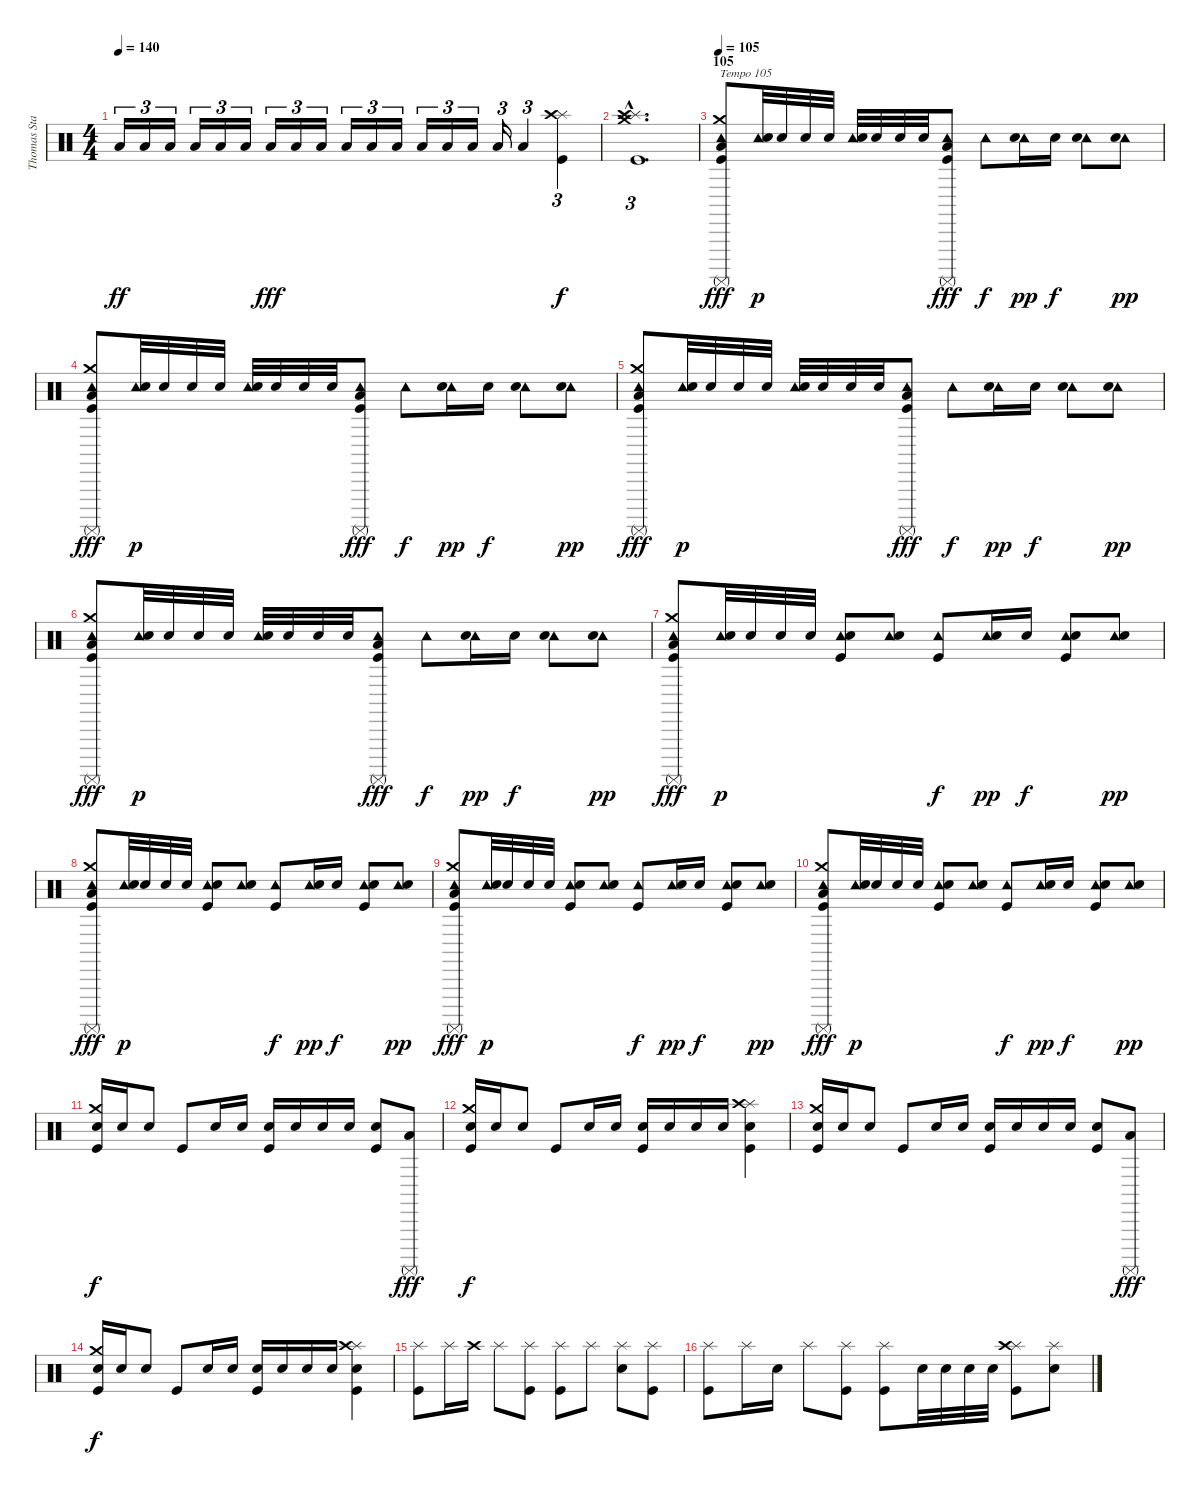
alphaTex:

\track ("Thomas Stauch" "Thomas Sta") {instrument percussion}
\staff {score}
\articulation defaults
\ts (4 4)
\tempo 140
\clef neutral
\ks c "Low Floor Tom (hit)".16{tu (3 2) dy ff} "Low Floor Tom (hit)".16{tu (3 2)} "Low Floor Tom (hit)".16{tu (3 2)} "Low Floor Tom (hit)".16{tu (3 2)} "Low Floor Tom (hit)".16{tu (3 2)} "Low Floor Tom (hit)".16{tu (3 2)} "Low Floor Tom (hit)".16{tu (3 2) dy fff} "Low Floor Tom (hit)".16{tu (3 2)} "Low Floor Tom (hit)".16{tu (3 2)} "Low Floor Tom (hit)".16{tu (3 2)} "Low Floor Tom (hit)".16{tu (3 2)} "Low Floor Tom (hit)".16{tu (3 2)} "Low Floor Tom (hit)".16{tu (3 2)} "Low Floor Tom (hit)".16{tu (3 2)} "Low Floor Tom (hit)".16{tu (3 2)} "Low Floor Tom (hit)".16{tu (3 2)} "Low Floor Tom (hit)".4{tu (3 2)}
("Splash (hit)" "Crash high (hit)" "Kick (hit)").4{tu (3 2) dy f} |
("Crash medium (hit)"{hac} "Splash (hit)"{hac} "Crash high (hit)"{hac} "Kick (hit)"{hac}).1{d tu (3 2)} |
\section ("" "105")
\tempo 105
("Crash medium (hit)" "Tambourine (hit)" "Surdo (mute)" "Low Floor Tom (hit)" "Kick (hit)").8{txt "Tempo 105" dy fff} ("Tambourine (hit)" "Electric Snare (hit)").32{dy p} "Electric Snare (hit)".32 "Electric Snare (hit)".32 "Electric Snare (hit)".32 ("Tambourine (hit)" "Electric Snare (hit)").32 "Electric Snare (hit)".32 "Electric Snare (hit)".32 "Electric Snare (hit)".32 ("Tambourine (hit)" "Surdo (mute)" "Low Floor Tom (hit)" "Kick (hit)").8{dy fff} "Tambourine (hit)".8{dy f} ("Tambourine (hit)" "Electric Snare (hit)").16{dy pp} "Electric Snare (hit)".16{dy f} ("Tambourine (hit)" "Electric Snare (hit)").8 ("Tambourine (hit)" "Electric Snare (hit)").8{dy pp} |
("Crash medium (hit)" "Tambourine (hit)" "Surdo (mute)" "Low Floor Tom (hit)" "Kick (hit)").8{dy fff} ("Tambourine (hit)" "Electric Snare (hit)").32{dy p} "Electric Snare (hit)".32 "Electric Snare (hit)".32 "Electric Snare (hit)".32 ("Tambourine (hit)" "Electric Snare (hit)").32 "Electric Snare (hit)".32 "Electric Snare (hit)".32 "Electric Snare (hit)".32 ("Tambourine (hit)" "Surdo (mute)" "Low Floor Tom (hit)" "Kick (hit)").8{dy fff} "Tambourine (hit)".8{dy f} ("Tambourine (hit)" "Electric Snare (hit)").16{dy pp} "Electric Snare (hit)".16{dy f} ("Tambourine (hit)" "Electric Snare (hit)").8 ("Tambourine (hit)" "Electric Snare (hit)").8{dy pp} |
("Crash medium (hit)" "Tambourine (hit)" "Surdo (mute)" "Low Floor Tom (hit)" "Kick (hit)").8{dy fff} ("Tambourine (hit)" "Electric Snare (hit)").32{dy p} "Electric Snare (hit)".32 "Electric Snare (hit)".32 "Electric Snare (hit)".32 ("Tambourine (hit)" "Electric Snare (hit)").32 "Electric Snare (hit)".32 "Electric Snare (hit)".32 "Electric Snare (hit)".32 ("Tambourine (hit)" "Surdo (mute)" "Low Floor Tom (hit)" "Kick (hit)").8{dy fff} "Tambourine (hit)".8{dy f} ("Tambourine (hit)" "Electric Snare (hit)").16{dy pp} "Electric Snare (hit)".16{dy f} ("Tambourine (hit)" "Electric Snare (hit)").8 ("Tambourine (hit)" "Electric Snare (hit)").8{dy pp} |
("Crash medium (hit)" "Tambourine (hit)" "Surdo (mute)" "Low Floor Tom (hit)" "Kick (hit)").8{dy fff} ("Tambourine (hit)" "Electric Snare (hit)").32{dy p} "Electric Snare (hit)".32 "Electric Snare (hit)".32 "Electric Snare (hit)".32 ("Tambourine (hit)" "Electric Snare (hit)").32 "Electric Snare (hit)".32 "Electric Snare (hit)".32 "Electric Snare (hit)".32 ("Tambourine (hit)" "Surdo (mute)" "Low Floor Tom (hit)" "Kick (hit)").8{dy fff} "Tambourine (hit)".8{dy f} ("Tambourine (hit)" "Electric Snare (hit)").16{dy pp} "Electric Snare (hit)".16{dy f} ("Tambourine (hit)" "Electric Snare (hit)").8 ("Tambourine (hit)" "Electric Snare (hit)").8{dy pp} |
("Crash medium (hit)" "Tambourine (hit)" "Surdo (mute)" "Low Floor Tom (hit)" "Kick (hit)").8{dy fff} ("Tambourine (hit)" "Electric Snare (hit)").32{dy p} "Electric Snare (hit)".32 "Electric Snare (hit)".32 "Electric Snare (hit)".32 ("Tambourine (hit)" "Electric Snare (hit)" "Kick (hit)").8 ("Tambourine (hit)" "Electric Snare (hit)").8 ("Tambourine (hit)" "Kick (hit)").8{dy f} ("Tambourine (hit)" "Electric Snare (hit)").16{dy pp} "Electric Snare (hit)".16{dy f} ("Tambourine (hit)" "Electric Snare (hit)" "Kick (hit)").8 ("Tambourine (hit)" "Electric Snare (hit)").8{dy pp} |
("Crash medium (hit)" "Tambourine (hit)" "Surdo (mute)" "Low Floor Tom (hit)" "Kick (hit)").8{dy fff} ("Tambourine (hit)" "Electric Snare (hit)").32{dy p} "Electric Snare (hit)".32 "Electric Snare (hit)".32 "Electric Snare (hit)".32 ("Tambourine (hit)" "Electric Snare (hit)" "Kick (hit)").8 ("Tambourine (hit)" "Electric Snare (hit)").8 ("Tambourine (hit)" "Kick (hit)").8{dy f} ("Tambourine (hit)" "Electric Snare (hit)").16{dy pp} "Electric Snare (hit)".16{dy f} ("Tambourine (hit)" "Electric Snare (hit)" "Kick (hit)").8 ("Tambourine (hit)" "Electric Snare (hit)").8{dy pp} |
("Crash medium (hit)" "Tambourine (hit)" "Surdo (mute)" "Low Floor Tom (hit)" "Kick (hit)").8{dy fff} ("Tambourine (hit)" "Electric Snare (hit)").32{dy p} "Electric Snare (hit)".32 "Electric Snare (hit)".32 "Electric Snare (hit)".32 ("Tambourine (hit)" "Electric Snare (hit)" "Kick (hit)").8 ("Tambourine (hit)" "Electric Snare (hit)").8 ("Tambourine (hit)" "Kick (hit)").8{dy f} ("Tambourine (hit)" "Electric Snare (hit)").16{dy pp} "Electric Snare (hit)".16{dy f} ("Tambourine (hit)" "Electric Snare (hit)" "Kick (hit)").8 ("Tambourine (hit)" "Electric Snare (hit)").8{dy pp} |
("Crash medium (hit)" "Tambourine (hit)" "Surdo (mute)" "Low Floor Tom (hit)" "Kick (hit)").8{dy fff} ("Tambourine (hit)" "Electric Snare (hit)").32{dy p} "Electric Snare (hit)".32 "Electric Snare (hit)".32 "Electric Snare (hit)".32 ("Tambourine (hit)" "Electric Snare (hit)" "Kick (hit)").8 ("Tambourine (hit)" "Electric Snare (hit)").8 ("Tambourine (hit)" "Kick (hit)").8{dy f} ("Tambourine (hit)" "Electric Snare (hit)").16{dy pp} "Electric Snare (hit)".16{dy f} ("Tambourine (hit)" "Electric Snare (hit)" "Kick (hit)").8 ("Tambourine (hit)" "Electric Snare (hit)").8{dy pp} |
("Crash medium (hit)" "Electric Snare (hit)" "Kick (hit)").16{dy f} "Electric Snare (hit)".16 "Electric Snare (hit)".8 "Kick (hit)".8 "Electric Snare (hit)".16 "Electric Snare (hit)".16 ("Electric Snare (hit)" "Kick (hit)").16 "Electric Snare (hit)".16 "Electric Snare (hit)".16 "Electric Snare (hit)".16 ("Electric Snare (hit)" "Kick (hit)").8 ("Surdo (mute)" "Low Floor Tom (hit)").8{dy fff} |
("Crash medium (hit)" "Electric Snare (hit)" "Kick (hit)").16{dy f} "Electric Snare (hit)".16 "Electric Snare (hit)".8 "Kick (hit)".8 "Electric Snare (hit)".16 "Electric Snare (hit)".16 ("Electric Snare (hit)" "Kick (hit)").16 "Electric Snare (hit)".16 "Electric Snare (hit)".16 "Electric Snare (hit)".16 ("Splash (hit)" "Crash high (hit)" "Electric Snare (hit)" "Kick (hit)").4 |
("Crash medium (hit)" "Electric Snare (hit)" "Kick (hit)").16 "Electric Snare (hit)".16 "Electric Snare (hit)".8 "Kick (hit)".8 "Electric Snare (hit)".16 "Electric Snare (hit)".16 ("Electric Snare (hit)" "Kick (hit)").16 "Electric Snare (hit)".16 "Electric Snare (hit)".16 "Electric Snare (hit)".16 ("Electric Snare (hit)" "Kick (hit)").8 ("Surdo (mute)" "Low Floor Tom (hit)").8{dy fff} |
("Crash medium (hit)" "Electric Snare (hit)" "Kick (hit)").16{dy f} "Electric Snare (hit)".16 "Electric Snare (hit)".8 "Kick (hit)".8 "Electric Snare (hit)".16 "Electric Snare (hit)".16 ("Electric Snare (hit)" "Kick (hit)").16 "Electric Snare (hit)".16 "Electric Snare (hit)".16 "Electric Snare (hit)".16 ("Splash (hit)" "Crash high (hit)" "Electric Snare (hit)" "Kick (hit)").4 |
("Splash (hit)" "Kick (hit)").8 "Splash (hit)".16 "Crash high (hit)".16 "Splash (hit)".8 ("Splash (hit)" "Kick (hit)").8 ("Splash (hit)" "Kick (hit)").8 "Splash (hit)".8 ("Splash (hit)" "Electric Snare (hit)").8 ("Splash (hit)" "Kick (hit)").8 |
("Splash (hit)" "Kick (hit)").8 "Splash (hit)".16 "Electric Snare (hit)".16 "Splash (hit)".8 ("Splash (hit)" "Kick (hit)").8 ("Splash (hit)" "Kick (hit)").8 "Electric Snare (hit)".32 "Electric Snare (hit)".32 "Electric Snare (hit)".32 "Electric Snare (hit)".32 ("Splash (hit)" "Crash high (hit)" "Kick (hit)").8 ("Splash (hit)" "Electric Snare (hit)").8
